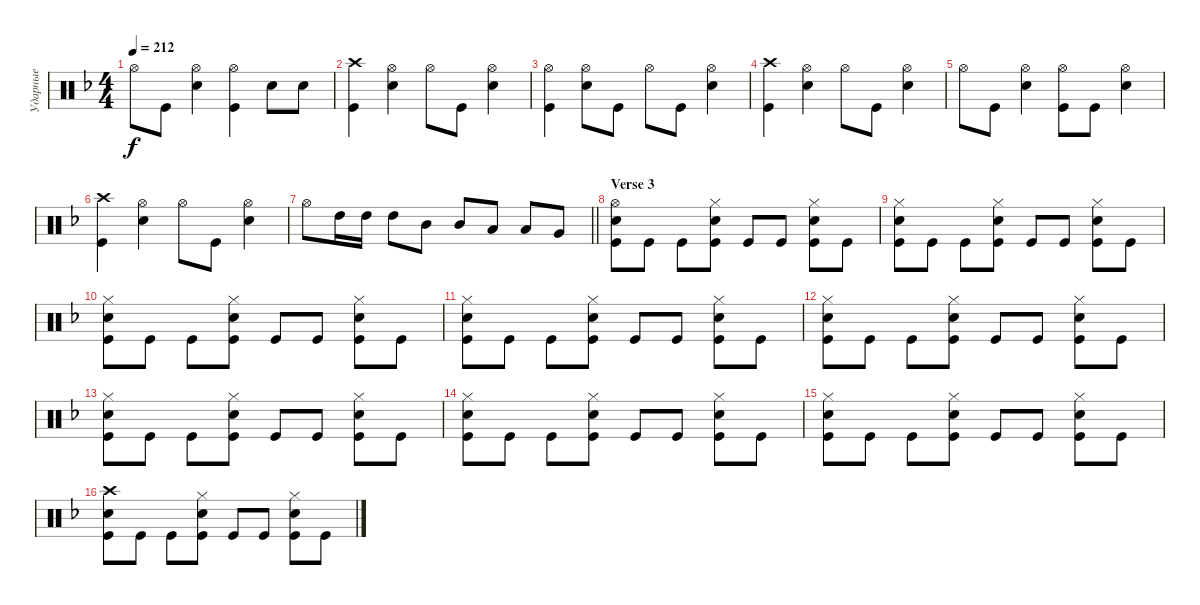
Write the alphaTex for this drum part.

\track ("Ударные" "Ударные") {instrument percussion}
\staff {score}
\articulation defaults
\ts (4 4)
\tempo 212
\clef neutral
\ks dminor "Hi-Hat (open)".8{dy f} "Kick (hit)".8
("Snare (hit) 2" "Hi-Hat (open)").4 ("Hi-Hat (open)" "Kick (hit)").4 "Snare (hit) 2".8 "Snare (hit) 2".8 |
("Kick (hit)" "Crash high (hit)").4 ("Snare (hit) 2" "Hi-Hat (open)").4 "Hi-Hat (open)".8 "Kick (hit)".8 ("Snare (hit) 2" "Hi-Hat (open)").4 |
("Hi-Hat (open)" "Kick (hit)").4 ("Hi-Hat (open)" "Snare (hit) 2").8 "Kick (hit)".8 "Hi-Hat (open)".8 "Kick (hit)".8 ("Snare (hit) 2" "Hi-Hat (open)").4 |
("Kick (hit)" "Crash high (hit)").4 ("Snare (hit) 2" "Hi-Hat (open)").4 "Hi-Hat (open)".8 "Kick (hit)".8 ("Snare (hit) 2" "Hi-Hat (open)").4 |
"Hi-Hat (open)".8 "Kick (hit)".8 ("Hi-Hat (open)" "Snare (hit) 2").4 ("Hi-Hat (open)" "Kick (hit)").8 "Kick (hit)".8 ("Hi-Hat (open)" "Snare (hit) 2").4 |
("Kick (hit)" "Crash high (hit)").4 ("Snare (hit) 2" "Hi-Hat (open)").4 "Hi-Hat (open)".8 "Kick (hit)".8 ("Snare (hit) 2" "Hi-Hat (open)").4 |
\barLineRight lightlight "Hi-Hat (open)".8 "High Tom (hit)".16 "High Tom (hit)".16 "High Tom (hit)".8 "Mid Tom (hit)".8 "Mid Tom (hit)".8 "Low Tom (hit)".8 "Low Tom (hit)".8 "Very Low Tom (hit)".8
|
\section ("" "Verse 3")
("Hi-Hat (open)" "Kick (hit)" "Snare (hit) 2").8 "Kick (hit)".8 "Kick (hit)".8 ("Snare (hit) 2" "Hi-Hat (closed)" "Kick (hit)").8 "Kick (hit)".8 "Kick (hit)".8 ("Hi-Hat (closed)" "Kick (hit)" "Snare (hit) 2").8 "Kick (hit)".8 |
("Hi-Hat (closed)" "Kick (hit)" "Snare (hit) 2").8 "Kick (hit)".8 "Kick (hit)".8 ("Snare (hit) 2" "Hi-Hat (closed)" "Kick (hit)").8 "Kick (hit)".8 "Kick (hit)".8 ("Hi-Hat (closed)" "Kick (hit)" "Snare (hit) 2").8 "Kick (hit)".8 |
("Hi-Hat (closed)" "Kick (hit)" "Snare (hit) 2").8 "Kick (hit)".8 "Kick (hit)".8 ("Snare (hit) 2" "Hi-Hat (closed)" "Kick (hit)").8 "Kick (hit)".8 "Kick (hit)".8 ("Hi-Hat (closed)" "Kick (hit)" "Snare (hit) 2").8 "Kick (hit)".8 |
("Hi-Hat (closed)" "Kick (hit)" "Snare (hit) 2").8 "Kick (hit)".8 "Kick (hit)".8 ("Snare (hit) 2" "Hi-Hat (closed)" "Kick (hit)").8 "Kick (hit)".8 "Kick (hit)".8 ("Hi-Hat (closed)" "Kick (hit)" "Snare (hit) 2").8 "Kick (hit)".8 |
("Hi-Hat (closed)" "Kick (hit)" "Snare (hit) 2").8 "Kick (hit)".8 "Kick (hit)".8 ("Snare (hit) 2" "Hi-Hat (closed)" "Kick (hit)").8 "Kick (hit)".8 "Kick (hit)".8 ("Hi-Hat (closed)" "Kick (hit)" "Snare (hit) 2").8 "Kick (hit)".8 |
("Hi-Hat (closed)" "Kick (hit)" "Snare (hit) 2").8 "Kick (hit)".8 "Kick (hit)".8 ("Snare (hit) 2" "Hi-Hat (closed)" "Kick (hit)").8 "Kick (hit)".8 "Kick (hit)".8 ("Hi-Hat (closed)" "Kick (hit)" "Snare (hit) 2").8 "Kick (hit)".8 |
("Hi-Hat (closed)" "Kick (hit)" "Snare (hit) 2").8 "Kick (hit)".8 "Kick (hit)".8 ("Snare (hit) 2" "Hi-Hat (closed)" "Kick (hit)").8 "Kick (hit)".8 "Kick (hit)".8 ("Hi-Hat (closed)" "Kick (hit)" "Snare (hit) 2").8 "Kick (hit)".8 |
("Hi-Hat (closed)" "Kick (hit)" "Snare (hit) 2").8 "Kick (hit)".8 "Kick (hit)".8 ("Snare (hit) 2" "Hi-Hat (closed)" "Kick (hit)").8 "Kick (hit)".8 "Kick (hit)".8 ("Hi-Hat (closed)" "Kick (hit)" "Snare (hit) 2").8 "Kick (hit)".8 |
("Crash high (hit)" "Kick (hit)" "Snare (hit) 2").8 "Kick (hit)".8 "Kick (hit)".8 ("Snare (hit) 2" "Hi-Hat (closed)" "Kick (hit)").8 "Kick (hit)".8 "Kick (hit)".8 ("Hi-Hat (closed)" "Kick (hit)" "Snare (hit) 2").8 "Kick (hit)".8
